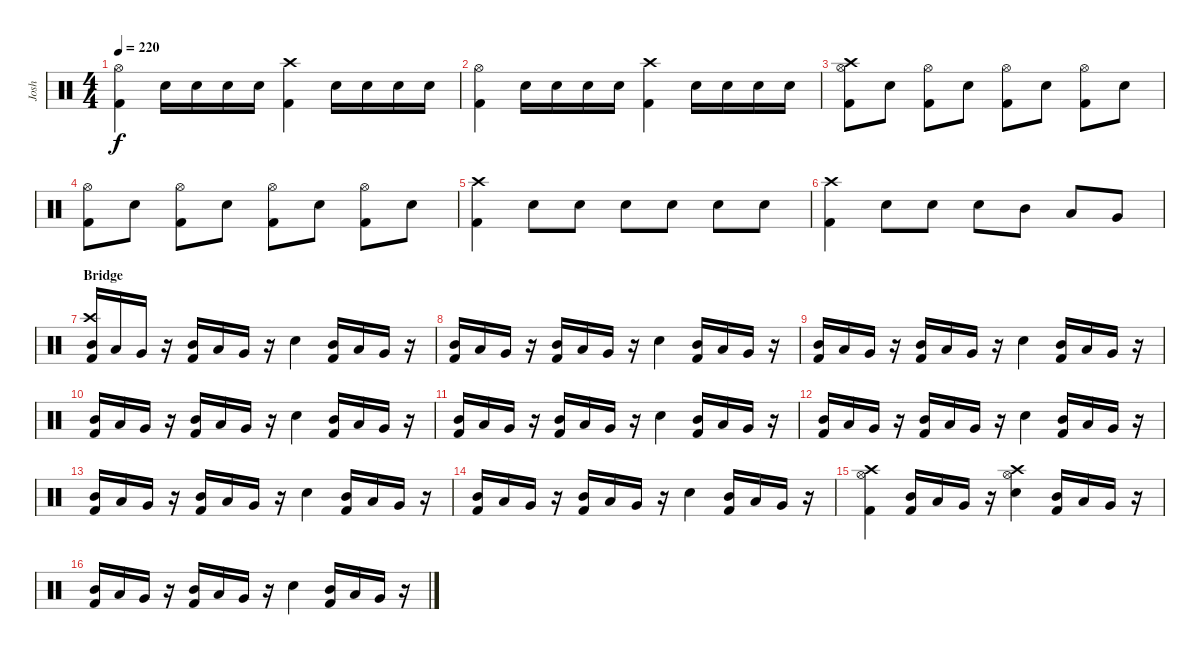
\track ("Josh" "Josh") {instrument percussion}
\staff {score}
\articulation defaults
\ts (4 4)
\tempo 220
\clef neutral
\ks c
("Hi-Hat (open)" "Kick (hit) 2").4{dy f} "Snare (hit) 2".16 "Snare (hit) 2".16 "Snare (hit) 2".16 "Snare (hit) 2".16 ("Crash high (hit)" "Kick (hit) 2").4 "Snare (hit) 2".16 "Snare (hit) 2".16 "Snare (hit) 2".16 "Snare (hit) 2".16 |
("Hi-Hat (open)" "Kick (hit) 2").4 "Snare (hit) 2".16 "Snare (hit) 2".16 "Snare (hit) 2".16 "Snare (hit) 2".16 ("Crash high (hit)" "Kick (hit) 2").4 "Snare (hit) 2".16 "Snare (hit) 2".16 "Snare (hit) 2".16 "Snare (hit) 2".16 |
("Crash high (hit)" "Hi-Hat (open)" "Kick (hit) 2").8 "Snare (hit) 2".8 ("Hi-Hat (open)" "Kick (hit) 2").8 "Snare (hit) 2".8 ("Hi-Hat (open)" "Kick (hit) 2").8 "Snare (hit) 2".8 ("Hi-Hat (open)" "Kick (hit) 2").8 "Snare (hit) 2".8 |
("Hi-Hat (open)" "Kick (hit) 2").8 "Snare (hit) 2".8 ("Hi-Hat (open)" "Kick (hit) 2").8 "Snare (hit) 2".8 ("Hi-Hat (open)" "Kick (hit) 2").8 "Snare (hit) 2".8 ("Hi-Hat (open)" "Kick (hit) 2").8 "Snare (hit) 2".8 |
("Crash high (hit)" "Kick (hit) 2").4 "Snare (hit) 2".8 "Snare (hit) 2".8 "Snare (hit) 2".8 "Snare (hit) 2".8 "Snare (hit) 2".8 "Snare (hit) 2".8 |
("Crash high (hit)" "Kick (hit) 2").4 "Snare (hit) 2".8 "Snare (hit) 2".8 "Snare (hit) 2".8 "Mid Tom (hit)".8 "Low Tom (hit)".8 "Very Low Tom (hit)".8 |
\section ("" "Bridge")
("Crash high (hit)" "Mid Tom (hit)" "Kick (hit) 2").16 "Low Tom (hit)".16 "Very Low Tom (hit)".16 r.16 ("Mid Tom (hit)" "Kick (hit) 2").16 "Low Tom (hit)".16 "Very Low Tom (hit)".16 r.16 "Snare (hit) 2".4 ("Mid Tom (hit)" "Kick (hit) 2").16 "Low Tom (hit)".16 "Very Low Tom (hit)".16 r.16 |
("Mid Tom (hit)" "Kick (hit) 2").16 "Low Tom (hit)".16 "Very Low Tom (hit)".16 r.16 ("Mid Tom (hit)" "Kick (hit) 2").16 "Low Tom (hit)".16 "Very Low Tom (hit)".16 r.16 "Snare (hit) 2".4 ("Mid Tom (hit)" "Kick (hit) 2").16 "Low Tom (hit)".16 "Very Low Tom (hit)".16 r.16 |
("Mid Tom (hit)" "Kick (hit) 2").16 "Low Tom (hit)".16 "Very Low Tom (hit)".16 r.16 ("Mid Tom (hit)" "Kick (hit) 2").16 "Low Tom (hit)".16 "Very Low Tom (hit)".16 r.16 "Snare (hit) 2".4 ("Mid Tom (hit)" "Kick (hit) 2").16 "Low Tom (hit)".16 "Very Low Tom (hit)".16 r.16 |
("Mid Tom (hit)" "Kick (hit) 2").16 "Low Tom (hit)".16 "Very Low Tom (hit)".16 r.16 ("Mid Tom (hit)" "Kick (hit) 2").16 "Low Tom (hit)".16 "Very Low Tom (hit)".16 r.16 "Snare (hit) 2".4 ("Mid Tom (hit)" "Kick (hit) 2").16 "Low Tom (hit)".16 "Very Low Tom (hit)".16 r.16 |
("Mid Tom (hit)" "Kick (hit) 2").16 "Low Tom (hit)".16 "Very Low Tom (hit)".16 r.16 ("Mid Tom (hit)" "Kick (hit) 2").16 "Low Tom (hit)".16 "Very Low Tom (hit)".16 r.16 "Snare (hit) 2".4 ("Mid Tom (hit)" "Kick (hit) 2").16 "Low Tom (hit)".16 "Very Low Tom (hit)".16 r.16 |
("Mid Tom (hit)" "Kick (hit) 2").16 "Low Tom (hit)".16 "Very Low Tom (hit)".16 r.16 ("Mid Tom (hit)" "Kick (hit) 2").16 "Low Tom (hit)".16 "Very Low Tom (hit)".16 r.16 "Snare (hit) 2".4 ("Mid Tom (hit)" "Kick (hit) 2").16 "Low Tom (hit)".16 "Very Low Tom (hit)".16 r.16 |
("Mid Tom (hit)" "Kick (hit) 2").16 "Low Tom (hit)".16 "Very Low Tom (hit)".16 r.16 ("Mid Tom (hit)" "Kick (hit) 2").16 "Low Tom (hit)".16 "Very Low Tom (hit)".16 r.16 "Snare (hit) 2".4 ("Mid Tom (hit)" "Kick (hit) 2").16 "Low Tom (hit)".16 "Very Low Tom (hit)".16 r.16 |
("Mid Tom (hit)" "Kick (hit) 2").16 "Low Tom (hit)".16 "Very Low Tom (hit)".16 r.16 ("Mid Tom (hit)" "Kick (hit) 2").16 "Low Tom (hit)".16 "Very Low Tom (hit)".16 r.16 "Snare (hit) 2".4 ("Mid Tom (hit)" "Kick (hit) 2").16 "Low Tom (hit)".16 "Very Low Tom (hit)".16 r.16 |
("Crash high (hit)" "Hi-Hat (open)" "Kick (hit) 2").4 ("Mid Tom (hit)" "Kick (hit) 2").16 "Low Tom (hit)".16 "Very Low Tom (hit)".16 r.16 ("Crash high (hit)" "Hi-Hat (open)" "Snare (hit) 2").4 ("Mid Tom (hit)" "Kick (hit) 2").16 "Low Tom (hit)".16 "Very Low Tom (hit)".16 r.16 |
("Mid Tom (hit)" "Kick (hit) 2").16 "Low Tom (hit)".16 "Very Low Tom (hit)".16 r.16 ("Mid Tom (hit)" "Kick (hit) 2").16 "Low Tom (hit)".16 "Very Low Tom (hit)".16 r.16 "Snare (hit) 2".4 ("Mid Tom (hit)" "Kick (hit) 2").16 "Low Tom (hit)".16 "Very Low Tom (hit)".16 r.16
